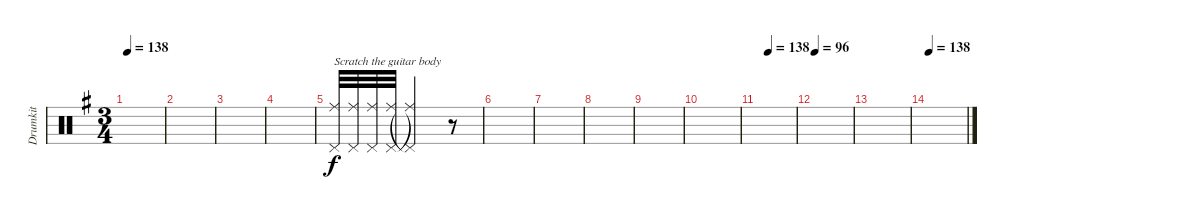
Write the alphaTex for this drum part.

\track ("Drumkit" "Drumkit") {instrument percussion}
\staff {score}
\articulation defaults
\ts (3 4)
\tempo 138
\clef neutral
\ks eminor
|
|
|
|
("Pedal Hi-Hat (hit)" "Ride (middle)").32{txt "Scratch the guitar body"} ("Pedal Hi-Hat (hit)" "Ride (middle)").32 ("Pedal Hi-Hat (hit)" "Ride (middle)").32 ("Pedal Hi-Hat (hit)" "Ride (middle)").32 ("Ride (middle)"{t} "Pedal Hi-Hat (hit)"{t}).2 r.8 |
|
|
|
|
|
\tempo (138 0.2708333333333333)
|
\tempo 96
|
|
\tempo 138
